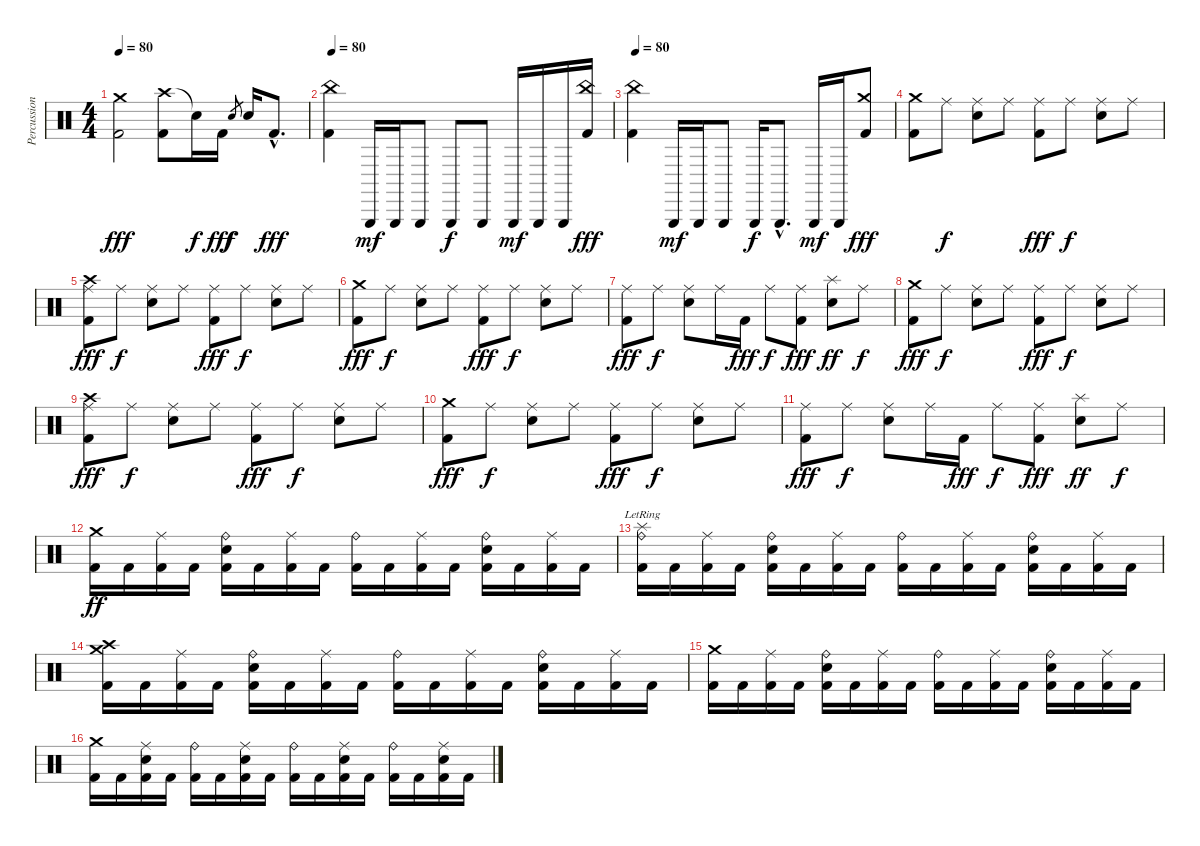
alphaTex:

\track ("Percussion" "Percussion") {instrument percussion}
\staff {score}
\articulation defaults
\ts (4 4)
\tempo 80
\clef neutral
\ks c
("Crash medium (hit)" "Kick (hit) 2").2{dy fff} ("Crash high (hit)" "Kick (hit) 2").8 "Snare (hit)"{t}.16{dy f} "Kick (hit) 2".16{dy fff} "Electric Snare (hit)".8{gr dy f} "Electric Snare (hit)".16 "Kick (hit) 2"{hac}.8{d dy fff} |
\tempo 80
("China (hit)" "Kick (hit) 2").4 "Triangle (hit)".16{dy mf} "Triangle (hit)".16 "Triangle (hit)".8 "Triangle (hit)".8{dy f} "Triangle (hit)".8 "Triangle (hit)".16{dy mf} "Triangle (hit)".16 "Triangle (hit)".16 ("China (hit)" "Kick (hit) 2").16{dy fff} |
\tempo 80
("China (hit)" "Kick (hit) 2").4 "Triangle (hit)".16{dy mf} "Triangle (hit)".16 "Triangle (hit)".8 "Triangle (hit)".16{dy f} "Triangle (hit)"{hac}.8{d} "Triangle (hit)".16{dy mf} "Triangle (hit)".16 ("Crash medium (hit)" "Kick (hit) 2").8{dy fff} |
("Crash medium (hit)" "Kick (hit) 2").8 "Ride (middle)".8{dy f} ("Ride (middle)" "Electric Snare (hit)").8 "Ride (middle)".8 ("Ride (middle)" "Kick (hit) 2").8{dy fff} "Ride (middle)".8{dy f} ("Ride (middle)" "Electric Snare (hit)").8 "Ride (middle)".8 |
("Crash high (hit)" "Ride (middle)" "Kick (hit) 2").8{dy fff} "Ride (middle)".8{dy f} ("Ride (middle)" "Electric Snare (hit)").8 "Ride (middle)".8 ("Ride (middle)" "Kick (hit) 2").8{dy fff} "Ride (middle)".8{dy f} ("Ride (middle)" "Electric Snare (hit)").8 "Ride (middle)".8 |
("Crash medium (hit)" "Kick (hit) 2").8{dy fff} "Ride (middle)".8{dy f} ("Ride (middle)" "Electric Snare (hit)").8 "Ride (middle)".8 ("Ride (middle)" "Kick (hit) 2").8{dy fff} "Ride (middle)".8{dy f} ("Ride (middle)" "Electric Snare (hit)").8 "Ride (middle)".8 |
("Ride (middle)" "Kick (hit) 2").8{dy fff} "Ride (middle)".8{dy f} ("Ride (middle)" "Electric Snare (hit)").8 "Ride (middle)".16 "Kick (hit) 2".16{dy fff} "Ride (middle)".8{dy f} ("Ride (middle)" "Kick (hit) 2").8{dy fff} ("Splash (hit)" "Electric Snare (hit)").8{dy ff} "Ride (middle)".8{dy f} |
("Crash medium (hit)" "Kick (hit) 2").8{dy fff} "Ride (middle)".8{dy f} ("Ride (middle)" "Electric Snare (hit)").8 "Ride (middle)".8 ("Ride (middle)" "Kick (hit) 2").8{dy fff} "Ride (middle)".8{dy f} ("Ride (middle)" "Electric Snare (hit)").8 "Ride (middle)".8 |
("Crash high (hit)" "Ride (middle)" "Kick (hit) 2").8{dy fff} "Ride (middle)".8{dy f} ("Ride (middle)" "Electric Snare (hit)").8 "Ride (middle)".8 ("Ride (middle)" "Kick (hit) 2").8{dy fff} "Ride (middle)".8{dy f} ("Ride (middle)" "Electric Snare (hit)").8 "Ride (middle)".8 |
("Crash medium (hit)" "Kick (hit) 2").8{dy fff} "Ride (middle)".8{dy f} ("Ride (middle)" "Electric Snare (hit)").8 "Ride (middle)".8 ("Ride (middle)" "Kick (hit) 2").8{dy fff} "Ride (middle)".8{dy f} ("Ride (middle)" "Electric Snare (hit)").8 "Ride (middle)".8 |
("Ride (middle)" "Kick (hit) 2").8{dy fff} "Ride (middle)".8{dy f} ("Ride (middle)" "Electric Snare (hit)").8 "Ride (middle)".16 "Kick (hit) 2".16{dy fff} "Ride (middle)".8{dy f} ("Ride (middle)" "Kick (hit) 2").8{dy fff} ("Splash (hit)" "Electric Snare (hit)").8{dy ff} "Ride (middle)".8{dy f} |
("Crash medium (hit)" "Kick (hit) 2").16{dy ff} "Kick (hit) 2".16 ("Ride (middle)" "Kick (hit) 2").16 "Kick (hit) 2".16 ("Ride (bell)" "Electric Snare (hit)" "Kick (hit) 2").16 "Kick (hit) 2".16 ("Ride (middle)" "Kick (hit) 2").16 "Kick (hit) 2".16 ("Ride (bell)" "Kick (hit) 2").16 "Kick (hit) 2".16 ("Ride (middle)" "Kick (hit) 2").16 "Kick (hit) 2".16 ("Ride (bell)" "Electric Snare (hit)" "Kick (hit) 2").16 "Kick (hit) 2".16 ("Ride (middle)" "Kick (hit) 2").16 "Kick (hit) 2".16 |
("Splash (hit)"{lr} "Ride (bell)" "Kick (hit) 2").16 "Kick (hit) 2".16 ("Ride (middle)" "Kick (hit) 2").16 "Kick (hit) 2".16 ("Ride (bell)" "Electric Snare (hit)" "Kick (hit) 2").16 "Kick (hit) 2".16 ("Ride (middle)" "Kick (hit) 2").16 "Kick (hit) 2".16 ("Ride (bell)" "Kick (hit) 2").16 "Kick (hit) 2".16 ("Ride (middle)" "Kick (hit) 2").16 "Kick (hit) 2".16 ("Ride (bell)" "Electric Snare (hit)" "Kick (hit) 2").16 "Kick (hit) 2".16 ("Ride (middle)" "Kick (hit) 2").16 "Kick (hit) 2".16 |
("Crash high (hit)" "Crash medium (hit)" "Kick (hit) 2").16 "Kick (hit) 2".16 ("Ride (middle)" "Kick (hit) 2").16 "Kick (hit) 2".16 ("Ride (bell)" "Electric Snare (hit)" "Kick (hit) 2").16 "Kick (hit) 2".16 ("Ride (middle)" "Kick (hit) 2").16 "Kick (hit) 2".16 ("Ride (bell)" "Kick (hit) 2").16 "Kick (hit) 2".16 ("Ride (middle)" "Kick (hit) 2").16 "Kick (hit) 2".16 ("Ride (bell)" "Electric Snare (hit)" "Kick (hit) 2").16 "Kick (hit) 2".16 ("Ride (middle)" "Kick (hit) 2").16 "Kick (hit) 2".16 |
("Crash medium (hit)" "Kick (hit) 2").16 "Kick (hit) 2".16 ("Ride (middle)" "Kick (hit) 2").16 "Kick (hit) 2".16 ("Ride (bell)" "Electric Snare (hit)" "Kick (hit) 2").16 "Kick (hit) 2".16 ("Ride (middle)" "Kick (hit) 2").16 "Kick (hit) 2".16 ("Ride (bell)" "Kick (hit) 2").16 "Kick (hit) 2".16 ("Ride (middle)" "Kick (hit) 2").16 "Kick (hit) 2".16 ("Ride (bell)" "Electric Snare (hit)" "Kick (hit) 2").16 "Kick (hit) 2".16 ("Ride (middle)" "Kick (hit) 2").16 "Kick (hit) 2".16 |
("Crash medium (hit)" "Kick (hit) 2").16 "Kick (hit) 2".16 ("Ride (middle)" "Electric Snare (hit)" "Kick (hit) 2").16 "Kick (hit) 2".16 ("Ride (bell)" "Kick (hit) 2").16 "Kick (hit) 2".16 ("Ride (middle)" "Electric Snare (hit)" "Kick (hit) 2").16 "Kick (hit) 2".16 ("Ride (bell)" "Kick (hit) 2").16 "Kick (hit) 2".16 ("Ride (middle)" "Electric Snare (hit)" "Kick (hit) 2").16 "Kick (hit) 2".16 ("Ride (bell)" "Kick (hit) 2").16 "Kick (hit) 2".16 ("Ride (middle)" "Electric Snare (hit)" "Kick (hit) 2").16 "Kick (hit) 2".16
